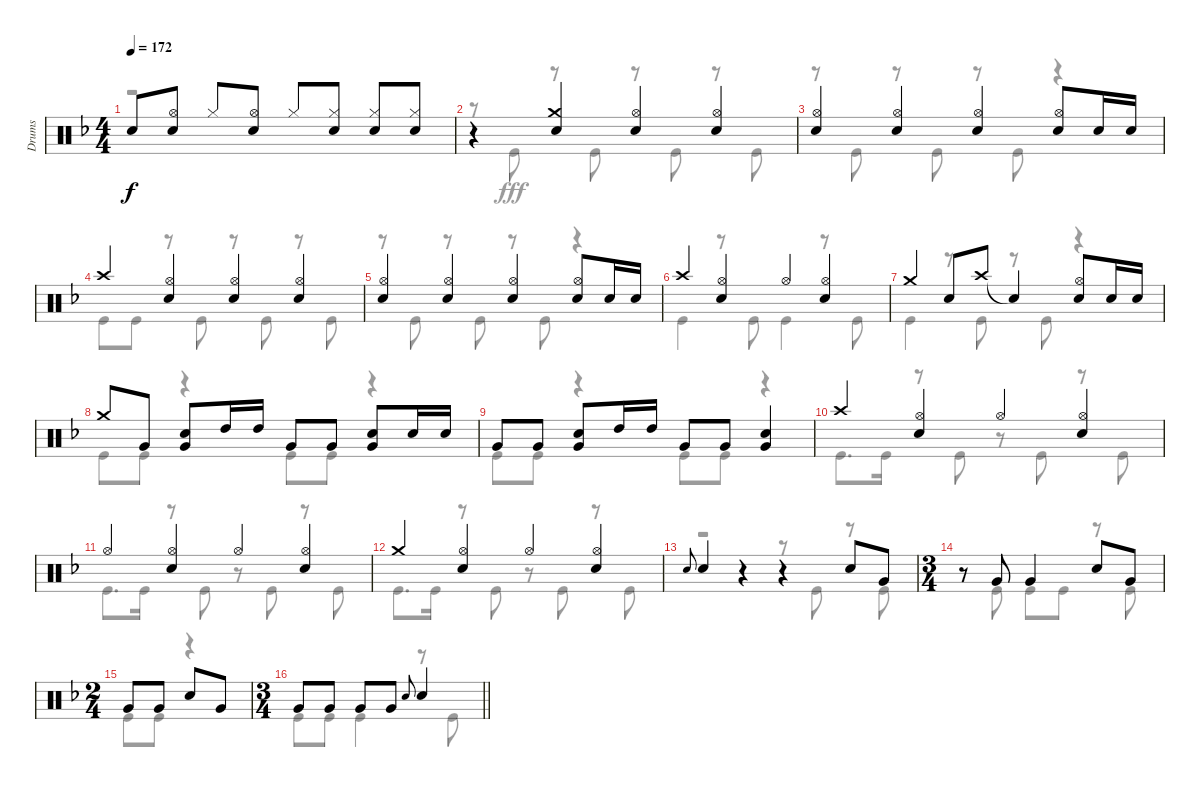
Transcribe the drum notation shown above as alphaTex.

\track ("Drums" "Drums") {instrument percussion}
\staff {score}
\articulation defaults
\voice
\ts (4 4)
\tempo 172
\clef neutral
\ks f "Snare (hit)"{t}.8{dy f}
("Hi-Hat (open)" "Snare (hit) 2").8 "Hi-Hat (closed)".8 ("Hi-Hat (open)" "Snare (hit) 2").8 "Hi-Hat (closed)".8 ("Hi-Hat (closed)" "Snare (hit) 2").8 ("Hi-Hat (closed)" "Snare (hit) 2").8 ("Hi-Hat (closed)" "Snare (hit) 2").8 |
r.4 ("Crash medium (hit)" "Snare (hit) 2").4 ("Hi-Hat (open)" "Snare (hit) 2").4 ("Hi-Hat (open)" "Snare (hit) 2").4 |
("Hi-Hat (open)" "Snare (hit) 2").4 ("Hi-Hat (open)" "Snare (hit) 2").4 ("Hi-Hat (open)" "Snare (hit) 2").4 ("Hi-Hat (open)" "Snare (hit) 2").8 "Snare (hit) 2".16 "Snare (hit) 2".16 |
"Crash high (hit)".4 ("Hi-Hat (open)" "Snare (hit) 2").4 ("Hi-Hat (open)" "Snare (hit) 2").4 ("Hi-Hat (open)" "Snare (hit) 2").4 |
("Hi-Hat (open)" "Snare (hit) 2").4 ("Hi-Hat (open)" "Snare (hit) 2").4 ("Hi-Hat (open)" "Snare (hit) 2").4 ("Hi-Hat (open)" "Snare (hit) 2").8 "Snare (hit) 2".16 "Snare (hit) 2".16 |
"Crash high (hit)".4 ("Hi-Hat (open)" "Snare (hit) 2").4 "Hi-Hat (open)".4 ("Hi-Hat (open)" "Snare (hit) 2").4 |
"Crash medium (hit)".4 "Snare (hit) 2".8 "Crash high (hit)".8 "Snare (hit)"{t}.4 ("Hi-Hat (open)" "Snare (hit) 2").8 "Snare (hit) 2".16 "Snare (hit) 2".16 |
"Crash medium (hit)".8 "Very Low Tom (hit)".8 ("Snare (hit) 2" "Very Low Tom (hit)").8 "High Tom (hit)".16 "High Tom (hit)".16 "Very Low Tom (hit)".8 "Very Low Tom (hit)".8 ("Snare (hit) 2" "Very Low Tom (hit)").8 "Snare (hit) 2".16 "Snare (hit) 2".16 |
"Very Low Tom (hit)".8 "Very Low Tom (hit)".8 ("Snare (hit) 2" "Very Low Tom (hit)").8 "High Tom (hit)".16 "High Tom (hit)".16 "Very Low Tom (hit)".8 "Very Low Tom (hit)".8 ("Snare (hit) 2" "Very Low Tom (hit)").4 |
"Crash high (hit)".4 ("Hi-Hat (open)" "Snare (hit) 2").4 "Hi-Hat (open)".4 ("Hi-Hat (open)" "Snare (hit) 2").4 |
"Hi-Hat (open)".4 ("Hi-Hat (open)" "Snare (hit) 2").4 "Hi-Hat (open)".4 ("Hi-Hat (open)" "Snare (hit) 2").4 |
"Crash medium (hit)".4 ("Hi-Hat (open)" "Snare (hit) 2").4 "Hi-Hat (open)".4 ("Hi-Hat (open)" "Snare (hit) 2").4 |
"Snare (hit) 2".8{gr onbeat} "Snare (hit) 2".4 r.4 r.4 "Snare (hit) 2".8 "Very Low Tom (hit)".8 |
\ts (3 4)
r.8 "Very Low Tom (hit)".8 "Very Low Tom (hit)".4 "Snare (hit) 2".8 "Very Low Tom (hit)".8 |
\ts (2 4)
"Very Low Tom (hit)".8 "Very Low Tom (hit)".8 "Snare (hit) 2".8 "Very Low Tom (hit)".8 |
\ts (3 4)
\barLineRight lightlight "Very Low Tom (hit)".8 "Very Low Tom (hit)".8 "Very Low Tom (hit)".8 "Very Low Tom (hit)".8 "Snare (hit) 2".8{gr onbeat} "Snare (hit) 2".4
\voice
\clef neutral
\ottava regular
\simile none
\ks f
r.1{dy fff} |
r.8 "Kick (hit)".8 r.8 "Kick (hit)".8 r.8 "Kick (hit)".8 r.8 "Kick (hit)".8 |
r.8 "Kick (hit)".8 r.8 "Kick (hit)".8 r.8 "Kick (hit)".8 r.4 |
"Kick (hit)".8 "Kick (hit)".8 r.8 "Kick (hit)".8 r.8 "Kick (hit)".8 r.8 "Kick (hit)".8 |
r.8 "Kick (hit)".8 r.8 "Kick (hit)".8 r.8 "Kick (hit)".8 r.4 |
"Kick (hit)".4 r.8 "Kick (hit)".8 "Kick (hit)".4 r.8 "Kick (hit)".8 |
"Kick (hit)".4 r.8 "Kick (hit)".8 r.8 "Kick (hit)".8 r.4 |
"Kick (hit)".8 "Kick (hit)".8 r.4 "Kick (hit)".8 "Kick (hit)".8 r.4 |
"Kick (hit)".8 "Kick (hit)".8 r.4 "Kick (hit)".8 "Kick (hit)".8 r.4 |
"Kick (hit)".8{d} "Kick (hit)".16 r.8 "Kick (hit)".8 r.8 "Kick (hit)".8 r.8 "Kick (hit)".8 |
"Kick (hit)".8{d} "Kick (hit)".16 r.8 "Kick (hit)".8 r.8 "Kick (hit)".8 r.8 "Kick (hit)".8 |
"Kick (hit)".8{d} "Kick (hit)".16 r.8 "Kick (hit)".8 r.8 "Kick (hit)".8 r.8 "Kick (hit)".8 |
r.2 r.8 "Kick (hit)".8 r.8 "Kick (hit)".8 |
r.8 "Kick (hit)".8 "Kick (hit)".8 "Kick (hit)".8 r.8 "Kick (hit)".8 |
"Kick (hit)".8 "Kick (hit)".8 r.4 |
\barLineRight lightlight "Kick (hit)".8 "Kick (hit)".8 "Kick (hit)".4
r.8 "Kick (hit)".8
